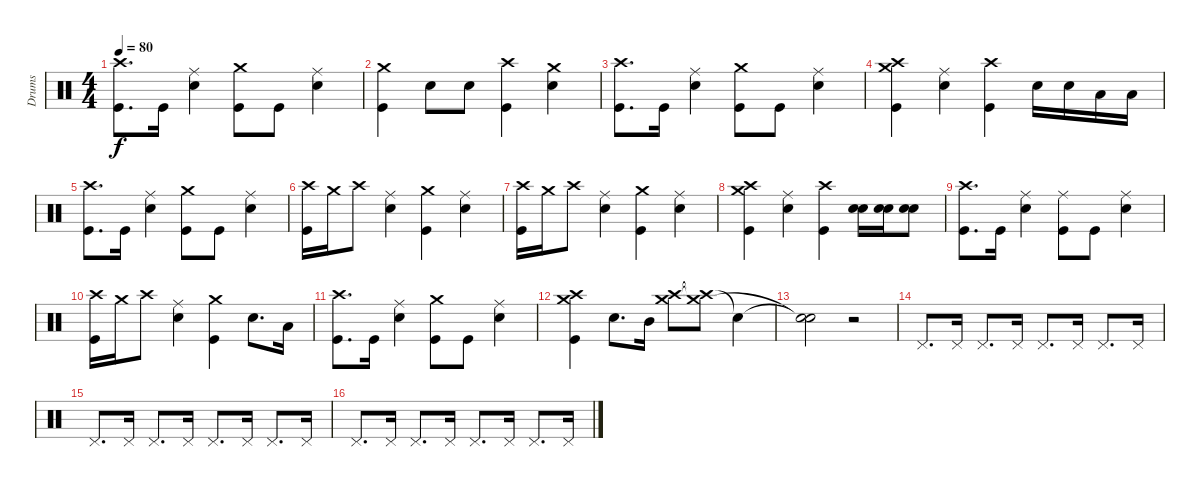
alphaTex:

\track ("Drums" "Drums") {instrument percussion}
\staff {score}
\articulation defaults
\ts (4 4)
\tempo 80
\clef neutral
\ks c
("Kick (hit)" "Crash high (hit)").8{d dy f} "Kick (hit)".16 ("Snare (hit) 2" "Ride (middle)").4 ("Kick (hit)" "Crash medium (hit)").8 "Kick (hit)".8 ("Snare (hit) 2" "Ride (middle)").4 |
("Kick (hit)" "Crash medium (hit)").4 "Snare (hit) 2".8 "Snare (hit) 2".8 ("Kick (hit)" "Crash high (hit)").4 ("Snare (hit) 2" "Crash medium (hit)").4 |
("Kick (hit)" "Crash high (hit)").8{d} "Kick (hit)".16 ("Snare (hit) 2" "Ride (middle)").4 ("Kick (hit)" "Crash medium (hit)").8 "Kick (hit)".8 ("Snare (hit) 2" "Ride (middle)").4 |
("Kick (hit)" "Crash medium (hit)" "Crash high (hit)").4 ("Snare (hit) 2" "Ride (middle)").4 ("Kick (hit)" "Crash high (hit)").4 "Snare (hit) 2".16 "Snare (hit) 2".16 "Low Tom (hit)".16 "Low Tom (hit)".16 |
("Kick (hit)" "Crash high (hit)").8{d} "Kick (hit)".16 ("Snare (hit) 2" "Ride (middle)").4 ("Kick (hit)" "Crash medium (hit)").8 "Kick (hit)".8 ("Snare (hit) 2" "Ride (middle)").4 |
("Kick (hit)" "Crash high (hit)").16 "Crash medium (hit)".16 "Crash high (hit)".8 ("Snare (hit) 2" "Ride (middle)").4 ("Kick (hit)" "Crash medium (hit)").4 ("Snare (hit) 2" "Ride (middle)").4 |
("Kick (hit)" "Crash high (hit)").16 "Crash medium (hit)".16 "Crash high (hit)".8 ("Snare (hit) 2" "Ride (middle)").4 ("Kick (hit)" "Crash medium (hit)").4 ("Snare (hit) 2" "Ride (middle)").4 |
("Kick (hit)" "Crash high (hit)" "Crash medium (hit)").4 ("Snare (hit) 2" "Ride (middle)").4 ("Kick (hit)" "Crash high (hit)").4 ("Snare (hit) 2" "Snare (hit) 2").16 ("Snare (hit) 2" "Snare (hit) 2").16 ("Snare (hit) 2" "Snare (hit) 2").8 |
("Kick (hit)" "Crash high (hit)").8{d} "Kick (hit)".16 ("Snare (hit) 2" "Ride (middle)").4 ("Kick (hit)" "Ride (middle)").8 "Kick (hit)".8 ("Snare (hit) 2" "Ride (middle)").4 |
("Kick (hit)" "Crash high (hit)").16 "Crash medium (hit)".16 "Crash high (hit)".8 ("Snare (hit) 2" "Ride (middle)").4 ("Kick (hit)" "Crash medium (hit)").4 "Snare (hit) 2".8{d} "Low Tom (hit)".16 |
("Kick (hit)" "Crash high (hit)").8{d} "Kick (hit)".16 ("Snare (hit) 2" "Ride (middle)").4 ("Kick (hit)" "Crash medium (hit)").8 "Kick (hit)".8 ("Snare (hit) 2" "Ride (middle)").4 |
("Kick (hit)" "Crash high (hit)" "Crash medium (hit)").4 "Snare (hit) 2".8{d} "Mid Tom (hit)".16 ("Crash high (hit)" "Crash medium (hit)").8 ("Crash high (hit)"{t} "Crash medium (hit)"{t}).8 "Snare (hit)"{t}.4 |
("Snare (hit)"{t} "Snare (hit)"{t}).2{volume 13} r.2 |
"Pedal Hi-Hat (hit)".8{d volume 8} "Pedal Hi-Hat (hit)".16 "Pedal Hi-Hat (hit)".8{d} "Pedal Hi-Hat (hit)".16 "Pedal Hi-Hat (hit)".8{d} "Pedal Hi-Hat (hit)".16 "Pedal Hi-Hat (hit)".8{d} "Pedal Hi-Hat (hit)".16 |
"Pedal Hi-Hat (hit)".8{d volume 10} "Pedal Hi-Hat (hit)".16 "Pedal Hi-Hat (hit)".8{d} "Pedal Hi-Hat (hit)".16 "Pedal Hi-Hat (hit)".8{d} "Pedal Hi-Hat (hit)".16 "Pedal Hi-Hat (hit)".8{d} "Pedal Hi-Hat (hit)".16 |
"Pedal Hi-Hat (hit)".8{d volume 11} "Pedal Hi-Hat (hit)".16 "Pedal Hi-Hat (hit)".8{d} "Pedal Hi-Hat (hit)".16 "Pedal Hi-Hat (hit)".8{d} "Pedal Hi-Hat (hit)".16 "Pedal Hi-Hat (hit)".8{d} "Pedal Hi-Hat (hit)".16
